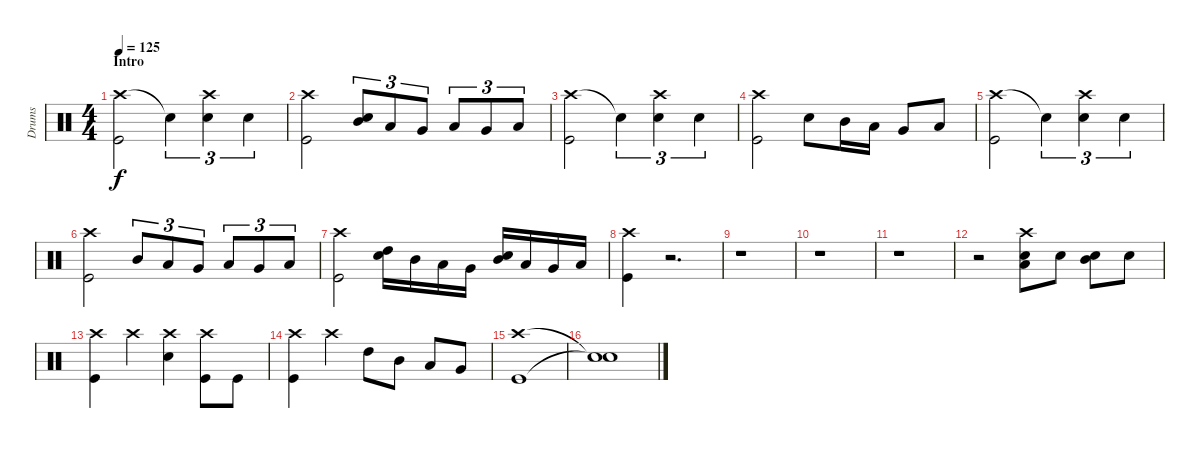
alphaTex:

\track ("Drums" "Drums") {instrument percussion}
\staff {score}
\articulation defaults
\ts (4 4)
\section ("" "Intro ")
\tempo 125
\clef neutral
\ks c
("Crash high (hit)" "Kick (hit)").2{dy f} "Snare (hit)"{t}.4{tu (3 2)} ("Crash high (hit)" "Electric Snare (hit)").4{tu (3 2)} "Electric Snare (hit)".4{tu (3 2)} |
("Crash high (hit)" "Kick (hit)").2 ("Mid Tom (hit)" "Electric Snare (hit)").8{tu (3 2)} "Low Tom (hit)".8{tu (3 2)} "Very Low Tom (hit)".8{tu (3 2)} "Low Tom (hit)".8{tu (3 2)} "Very Low Tom (hit)".8{tu (3 2)} "Low Floor Tom (hit)".8{tu (3 2)} |
("Crash high (hit)" "Kick (hit)").2 "Snare (hit)"{t}.4{tu (3 2)} ("Crash high (hit)" "Electric Snare (hit)").4{tu (3 2)} "Electric Snare (hit)".4{tu (3 2)} |
("Crash high (hit)" "Kick (hit)").2 "Electric Snare (hit)".8 "Mid Tom (hit)".16 "Low Tom (hit)".16 "Very Low Tom (hit)".8 "Low Floor Tom (hit)".8 |
("Crash high (hit)" "Kick (hit)").2 "Snare (hit)"{t}.4{tu (3 2)} ("Crash high (hit)" "Electric Snare (hit)").4{tu (3 2)} "Electric Snare (hit)".4{tu (3 2)} |
("Crash high (hit)" "Kick (hit)").2 "Mid Tom (hit)".8{tu (3 2)} "Low Tom (hit)".8{tu (3 2)} "Very Low Tom (hit)".8{tu (3 2)} "Low Tom (hit)".8{tu (3 2)} "Very Low Tom (hit)".8{tu (3 2)} "Low Floor Tom (hit)".8{tu (3 2)} |
("Crash high (hit)" "Kick (hit)").2 ("High Tom (hit)" "Electric Snare (hit)").16 "Mid Tom (hit)".16 "Low Tom (hit)".16 "Very Low Tom (hit)".16 ("Mid Tom (hit)" "Electric Snare (hit)").16 "Low Tom (hit)".16 "Very Low Tom (hit)".16 "Low Floor Tom (hit)".16 |
("Crash high (hit)" "Kick (hit)").4 r.2{d} |
r.1 |
r.1 |
r.1 |
r.2 ("Crash high (hit)" "Low Floor Tom (hit)" "Electric Snare (hit)").8 "Electric Snare (hit)".8 ("Mid Tom (hit)" "Electric Snare (hit)").8 "Electric Snare (hit)".8 |
("Crash high (hit)" "Kick (hit)").4 "Crash high (hit)".4 ("Crash high (hit)" "Electric Snare (hit)").4 ("Crash high (hit)" "Kick (hit)").8 "Kick (hit)".8 |
("Crash high (hit)" "Kick (hit)").4 "Crash high (hit)".4 "High Tom (hit)".8 "Mid Tom (hit)".8 "Low Tom (hit)".8 "Very Low Tom (hit)".8 |
("Crash high (hit)" "Kick (hit)").1 |
("Snare (hit)"{t} "Snare (hit)"{t}).1
